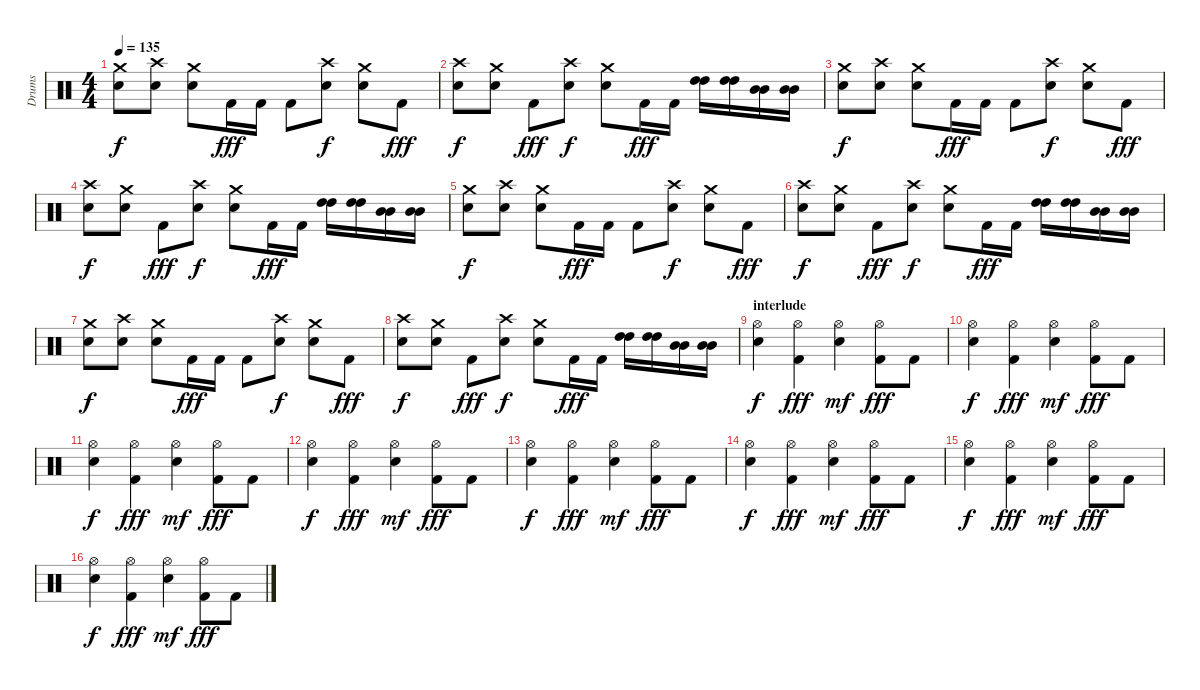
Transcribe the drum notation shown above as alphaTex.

\track ("Drums" "Drums") {instrument percussion}
\staff {score}
\articulation defaults
\ts (4 4)
\tempo 135
\clef neutral
\ks c
("Crash medium (hit)" "Electric Snare (hit)").8{dy f} ("Electric Snare (hit)" "Crash high (hit)").8 ("Crash medium (hit)" "Electric Snare (hit)").8 "Kick (hit) 2".16{dy fff} "Kick (hit) 2".16 "Kick (hit) 2".8 ("Electric Snare (hit)" "Crash high (hit)").8{dy f} ("Crash medium (hit)" "Electric Snare (hit)").8 "Kick (hit) 2".8{dy fff} |
("Electric Snare (hit)" "Crash high (hit)").8{dy f} ("Crash medium (hit)" "Electric Snare (hit)").8 "Kick (hit) 2".8{dy fff} ("Electric Snare (hit)" "Crash high (hit)").8{dy f} ("Crash medium (hit)" "Electric Snare (hit)").8 "Kick (hit) 2".16{dy fff} "Kick (hit) 2".16 ("High Tom (hit)" "High Tom (hit)").16 ("High Tom (hit)" "High Tom (hit)").16 ("Mid Tom (hit)" "Mid Tom (hit)").16 ("Mid Tom (hit)" "Mid Tom (hit)").16 |
("Crash medium (hit)" "Electric Snare (hit)").8{dy f} ("Electric Snare (hit)" "Crash high (hit)").8 ("Crash medium (hit)" "Electric Snare (hit)").8 "Kick (hit) 2".16{dy fff} "Kick (hit) 2".16 "Kick (hit) 2".8 ("Electric Snare (hit)" "Crash high (hit)").8{dy f} ("Crash medium (hit)" "Electric Snare (hit)").8 "Kick (hit) 2".8{dy fff} |
("Electric Snare (hit)" "Crash high (hit)").8{dy f} ("Crash medium (hit)" "Electric Snare (hit)").8 "Kick (hit) 2".8{dy fff} ("Electric Snare (hit)" "Crash high (hit)").8{dy f} ("Crash medium (hit)" "Electric Snare (hit)").8 "Kick (hit) 2".16{dy fff} "Kick (hit) 2".16 ("High Tom (hit)" "High Tom (hit)").16 ("High Tom (hit)" "High Tom (hit)").16 ("Mid Tom (hit)" "Mid Tom (hit)").16 ("Mid Tom (hit)" "Mid Tom (hit)").16 |
("Crash medium (hit)" "Electric Snare (hit)").8{dy f} ("Electric Snare (hit)" "Crash high (hit)").8 ("Crash medium (hit)" "Electric Snare (hit)").8 "Kick (hit) 2".16{dy fff} "Kick (hit) 2".16 "Kick (hit) 2".8 ("Electric Snare (hit)" "Crash high (hit)").8{dy f} ("Crash medium (hit)" "Electric Snare (hit)").8 "Kick (hit) 2".8{dy fff} |
("Electric Snare (hit)" "Crash high (hit)").8{dy f} ("Crash medium (hit)" "Electric Snare (hit)").8 "Kick (hit) 2".8{dy fff} ("Electric Snare (hit)" "Crash high (hit)").8{dy f} ("Crash medium (hit)" "Electric Snare (hit)").8 "Kick (hit) 2".16{dy fff} "Kick (hit) 2".16 ("High Tom (hit)" "High Tom (hit)").16 ("High Tom (hit)" "High Tom (hit)").16 ("Mid Tom (hit)" "Mid Tom (hit)").16 ("Mid Tom (hit)" "Mid Tom (hit)").16 |
("Crash medium (hit)" "Electric Snare (hit)").8{dy f} ("Electric Snare (hit)" "Crash high (hit)").8 ("Crash medium (hit)" "Electric Snare (hit)").8 "Kick (hit) 2".16{dy fff} "Kick (hit) 2".16 "Kick (hit) 2".8 ("Electric Snare (hit)" "Crash high (hit)").8{dy f} ("Crash medium (hit)" "Electric Snare (hit)").8 "Kick (hit) 2".8{dy fff} |
("Electric Snare (hit)" "Crash high (hit)").8{dy f} ("Crash medium (hit)" "Electric Snare (hit)").8 "Kick (hit) 2".8{dy fff} ("Electric Snare (hit)" "Crash high (hit)").8{dy f} ("Crash medium (hit)" "Electric Snare (hit)").8 "Kick (hit) 2".16{dy fff} "Kick (hit) 2".16 ("High Tom (hit)" "High Tom (hit)").16 ("High Tom (hit)" "High Tom (hit)").16 ("Mid Tom (hit)" "Mid Tom (hit)").16 ("Mid Tom (hit)" "Mid Tom (hit)").16 |
\section ("" "interlude")
("Hi-Hat (open)" "Electric Snare (hit)").4{dy f} ("Hi-Hat (open)" "Kick (hit) 2").4{dy fff} ("Hi-Hat (open)" "Electric Snare (hit)").4{dy mf} ("Hi-Hat (open)" "Kick (hit) 2").8{dy fff} "Kick (hit) 2".8 |
("Hi-Hat (open)" "Electric Snare (hit)").4{dy f} ("Hi-Hat (open)" "Kick (hit) 2").4{dy fff} ("Hi-Hat (open)" "Electric Snare (hit)").4{dy mf} ("Hi-Hat (open)" "Kick (hit) 2").8{dy fff} "Kick (hit) 2".8 |
("Hi-Hat (open)" "Electric Snare (hit)").4{dy f} ("Hi-Hat (open)" "Kick (hit) 2").4{dy fff} ("Hi-Hat (open)" "Electric Snare (hit)").4{dy mf} ("Hi-Hat (open)" "Kick (hit) 2").8{dy fff} "Kick (hit) 2".8 |
("Hi-Hat (open)" "Electric Snare (hit)").4{dy f} ("Hi-Hat (open)" "Kick (hit) 2").4{dy fff} ("Hi-Hat (open)" "Electric Snare (hit)").4{dy mf} ("Hi-Hat (open)" "Kick (hit) 2").8{dy fff} "Kick (hit) 2".8 |
("Hi-Hat (open)" "Electric Snare (hit)").4{dy f} ("Hi-Hat (open)" "Kick (hit) 2").4{dy fff} ("Hi-Hat (open)" "Electric Snare (hit)").4{dy mf} ("Hi-Hat (open)" "Kick (hit) 2").8{dy fff} "Kick (hit) 2".8 |
("Hi-Hat (open)" "Electric Snare (hit)").4{dy f} ("Hi-Hat (open)" "Kick (hit) 2").4{dy fff} ("Hi-Hat (open)" "Electric Snare (hit)").4{dy mf} ("Hi-Hat (open)" "Kick (hit) 2").8{dy fff} "Kick (hit) 2".8 |
("Hi-Hat (open)" "Electric Snare (hit)").4{dy f} ("Hi-Hat (open)" "Kick (hit) 2").4{dy fff} ("Hi-Hat (open)" "Electric Snare (hit)").4{dy mf} ("Hi-Hat (open)" "Kick (hit) 2").8{dy fff} "Kick (hit) 2".8 |
("Hi-Hat (open)" "Electric Snare (hit)").4{dy f} ("Hi-Hat (open)" "Kick (hit) 2").4{dy fff} ("Hi-Hat (open)" "Electric Snare (hit)").4{dy mf} ("Hi-Hat (open)" "Kick (hit) 2").8{dy fff} "Kick (hit) 2".8
